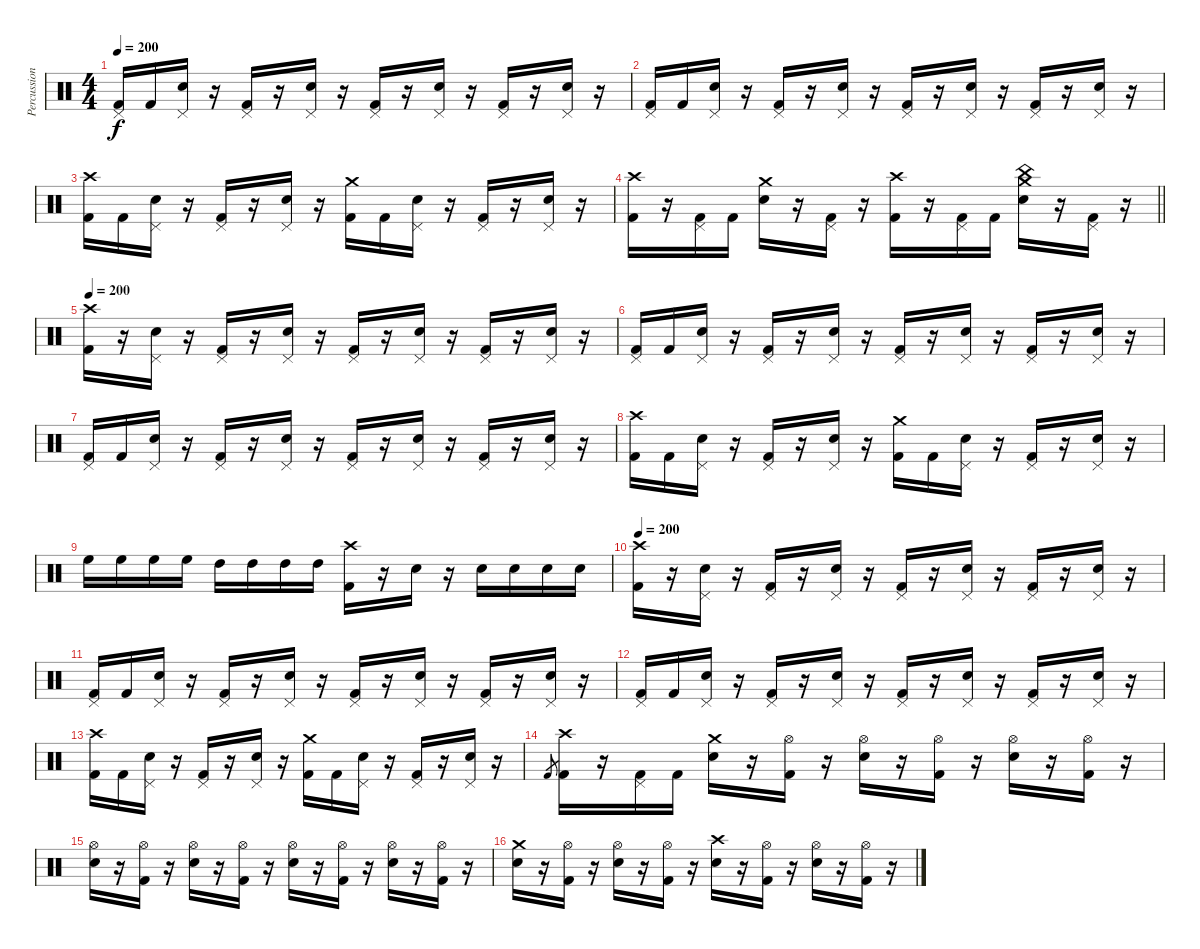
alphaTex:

\track ("Percussion" "Percussion") {instrument percussion}
\staff {score}
\articulation defaults
\ts (4 4)
\tempo 200
\clef neutral
\ks c
("Pedal Hi-Hat (hit)" "Kick (hit) 2").16{dy f} "Kick (hit) 2".16 ("Pedal Hi-Hat (hit)" "Snare (hit) 2").16 r.16 ("Pedal Hi-Hat (hit)" "Kick (hit) 2").16 r.16 ("Pedal Hi-Hat (hit)" "Snare (hit) 2").16 r.16 ("Pedal Hi-Hat (hit)" "Kick (hit) 2").16 r.16 ("Pedal Hi-Hat (hit)" "Snare (hit) 2").16 r.16 ("Pedal Hi-Hat (hit)" "Kick (hit) 2").16 r.16 ("Pedal Hi-Hat (hit)" "Snare (hit) 2").16 r.16 |
("Pedal Hi-Hat (hit)" "Kick (hit) 2").16 "Kick (hit) 2".16 ("Pedal Hi-Hat (hit)" "Snare (hit) 2").16 r.16 ("Pedal Hi-Hat (hit)" "Kick (hit) 2").16 r.16 ("Pedal Hi-Hat (hit)" "Snare (hit) 2").16 r.16 ("Pedal Hi-Hat (hit)" "Kick (hit) 2").16 r.16 ("Pedal Hi-Hat (hit)" "Snare (hit) 2").16 r.16 ("Pedal Hi-Hat (hit)" "Kick (hit) 2").16 r.16 ("Pedal Hi-Hat (hit)" "Snare (hit) 2").16 r.16 |
("Crash high (hit)" "Kick (hit) 2").16 "Kick (hit) 2".16 ("Pedal Hi-Hat (hit)" "Snare (hit) 2").16 r.16 ("Pedal Hi-Hat (hit)" "Kick (hit) 2").16 r.16 ("Pedal Hi-Hat (hit)" "Snare (hit) 2").16 r.16 ("Crash medium (hit)" "Kick (hit) 2").16 "Kick (hit) 2".16 ("Pedal Hi-Hat (hit)" "Snare (hit) 2").16 r.16 ("Pedal Hi-Hat (hit)" "Kick (hit) 2").16 r.16 ("Pedal Hi-Hat (hit)" "Snare (hit) 2").16 r.16 |
\barLineRight lightlight
("Crash high (hit)" "Kick (hit) 2").16 r.16 ("Pedal Hi-Hat (hit)" "Kick (hit) 2").16 "Kick (hit) 2".16 ("Crash medium (hit)" "Snare (hit) 2").16 r.16 ("Pedal Hi-Hat (hit)" "Kick (hit) 2").16 r.16 ("Crash high (hit)" "Kick (hit) 2").16 r.16 ("Pedal Hi-Hat (hit)" "Kick (hit) 2").16 "Kick (hit) 2".16 ("Crash medium (hit)" "China (hit)" "Snare (hit) 2").16 r.16 ("Pedal Hi-Hat (hit)" "Kick (hit) 2").16 r.16 |
\section ("" "")
\tempo 200
("Crash high (hit)" "Kick (hit) 2").16 r.16 ("Pedal Hi-Hat (hit)" "Snare (hit) 2").16 r.16 ("Pedal Hi-Hat (hit)" "Kick (hit) 2").16 r.16 ("Pedal Hi-Hat (hit)" "Snare (hit) 2").16 r.16 ("Pedal Hi-Hat (hit)" "Kick (hit) 2").16 r.16 ("Pedal Hi-Hat (hit)" "Snare (hit) 2").16 r.16 ("Pedal Hi-Hat (hit)" "Kick (hit) 2").16 r.16 ("Pedal Hi-Hat (hit)" "Snare (hit) 2").16 r.16 |
("Pedal Hi-Hat (hit)" "Kick (hit) 2").16 "Kick (hit) 2".16 ("Pedal Hi-Hat (hit)" "Snare (hit) 2").16 r.16 ("Pedal Hi-Hat (hit)" "Kick (hit) 2").16 r.16 ("Pedal Hi-Hat (hit)" "Snare (hit) 2").16 r.16 ("Pedal Hi-Hat (hit)" "Kick (hit) 2").16 r.16 ("Pedal Hi-Hat (hit)" "Snare (hit) 2").16 r.16 ("Pedal Hi-Hat (hit)" "Kick (hit) 2").16 r.16 ("Pedal Hi-Hat (hit)" "Snare (hit) 2").16 r.16 |
("Pedal Hi-Hat (hit)" "Kick (hit) 2").16 "Kick (hit) 2".16 ("Pedal Hi-Hat (hit)" "Snare (hit) 2").16 r.16 ("Pedal Hi-Hat (hit)" "Kick (hit) 2").16 r.16 ("Pedal Hi-Hat (hit)" "Snare (hit) 2").16 r.16 ("Pedal Hi-Hat (hit)" "Kick (hit) 2").16 r.16 ("Pedal Hi-Hat (hit)" "Snare (hit) 2").16 r.16 ("Pedal Hi-Hat (hit)" "Kick (hit) 2").16 r.16 ("Pedal Hi-Hat (hit)" "Snare (hit) 2").16 r.16 |
("Crash high (hit)" "Kick (hit) 2").16 "Kick (hit) 2".16 ("Pedal Hi-Hat (hit)" "Snare (hit) 2").16 r.16 ("Pedal Hi-Hat (hit)" "Kick (hit) 2").16 r.16 ("Pedal Hi-Hat (hit)" "Snare (hit) 2").16 r.16 ("Crash medium (hit)" "Kick (hit) 2").16 "Kick (hit) 2".16 ("Pedal Hi-Hat (hit)" "Snare (hit) 2").16 r.16 ("Pedal Hi-Hat (hit)" "Kick (hit) 2").16 r.16 ("Pedal Hi-Hat (hit)" "Snare (hit) 2").16 r.16 |
"High Floor Tom (hit)".16 "High Floor Tom (hit)".16 "High Floor Tom (hit)".16 "High Floor Tom (hit)".16 "High Tom (hit)".16 "High Tom (hit)".16 "High Tom (hit)".16 "High Tom (hit)".16 ("Crash high (hit)" "Kick (hit) 2").16 r.16 "Snare (hit) 2".16 r.16 "Snare (hit) 2".16 "Snare (hit) 2".16 "Snare (hit) 2".16 "Snare (hit) 2".16 |
\tempo 200
("Crash high (hit)" "Kick (hit) 2").16 r.16 ("Pedal Hi-Hat (hit)" "Snare (hit) 2").16 r.16 ("Pedal Hi-Hat (hit)" "Kick (hit) 2").16 r.16 ("Pedal Hi-Hat (hit)" "Snare (hit) 2").16 r.16 ("Pedal Hi-Hat (hit)" "Kick (hit) 2").16 r.16 ("Pedal Hi-Hat (hit)" "Snare (hit) 2").16 r.16 ("Pedal Hi-Hat (hit)" "Kick (hit) 2").16 r.16 ("Pedal Hi-Hat (hit)" "Snare (hit) 2").16 r.16 |
("Pedal Hi-Hat (hit)" "Kick (hit) 2").16 "Kick (hit) 2".16 ("Pedal Hi-Hat (hit)" "Snare (hit) 2").16 r.16 ("Pedal Hi-Hat (hit)" "Kick (hit) 2").16 r.16 ("Pedal Hi-Hat (hit)" "Snare (hit) 2").16 r.16 ("Pedal Hi-Hat (hit)" "Kick (hit) 2").16 r.16 ("Pedal Hi-Hat (hit)" "Snare (hit) 2").16 r.16 ("Pedal Hi-Hat (hit)" "Kick (hit) 2").16 r.16 ("Pedal Hi-Hat (hit)" "Snare (hit) 2").16 r.16 |
("Pedal Hi-Hat (hit)" "Kick (hit) 2").16 "Kick (hit) 2".16 ("Pedal Hi-Hat (hit)" "Snare (hit) 2").16 r.16 ("Pedal Hi-Hat (hit)" "Kick (hit) 2").16 r.16 ("Pedal Hi-Hat (hit)" "Snare (hit) 2").16 r.16 ("Pedal Hi-Hat (hit)" "Kick (hit) 2").16 r.16 ("Pedal Hi-Hat (hit)" "Snare (hit) 2").16 r.16 ("Pedal Hi-Hat (hit)" "Kick (hit) 2").16 r.16 ("Pedal Hi-Hat (hit)" "Snare (hit) 2").16 r.16 |
("Crash high (hit)" "Kick (hit) 2").16 "Kick (hit) 2".16 ("Pedal Hi-Hat (hit)" "Snare (hit) 2").16 r.16 ("Pedal Hi-Hat (hit)" "Kick (hit) 2").16 r.16 ("Pedal Hi-Hat (hit)" "Snare (hit) 2").16 r.16 ("Crash medium (hit)" "Kick (hit) 2").16 "Kick (hit) 2".16 ("Pedal Hi-Hat (hit)" "Snare (hit) 2").16 r.16 ("Pedal Hi-Hat (hit)" "Kick (hit) 2").16 r.16 ("Pedal Hi-Hat (hit)" "Snare (hit) 2").16 r.16 |
"Kick (hit) 2".8{gr} ("Crash high (hit)" "Kick (hit) 2").16 r.16 ("Pedal Hi-Hat (hit)" "Kick (hit) 2").16 "Kick (hit) 2".16 ("Crash medium (hit)" "Snare (hit) 2").16 r.16 ("Hi-Hat (open)" "Kick (hit) 2").16 r.16 ("Hi-Hat (open)" "Snare (hit) 2").16 r.16 ("Hi-Hat (open)" "Kick (hit) 2").16 r.16 ("Hi-Hat (open)" "Snare (hit) 2").16 r.16 ("Hi-Hat (open)" "Kick (hit) 2").16 r.16 |
("Hi-Hat (open)" "Snare (hit) 2").16 r.16 ("Hi-Hat (open)" "Kick (hit) 2").16 r.16 ("Hi-Hat (open)" "Snare (hit) 2").16 r.16 ("Hi-Hat (open)" "Kick (hit) 2").16 r.16 ("Hi-Hat (open)" "Snare (hit) 2").16 r.16 ("Hi-Hat (open)" "Kick (hit) 2").16 r.16 ("Hi-Hat (open)" "Snare (hit) 2").16 r.16 ("Hi-Hat (open)" "Kick (hit) 2").16 r.16 |
("Crash medium (hit)" "Snare (hit) 2").16 r.16 ("Hi-Hat (open)" "Kick (hit) 2").16 r.16 ("Hi-Hat (open)" "Snare (hit) 2").16 r.16 ("Hi-Hat (open)" "Kick (hit) 2").16 r.16 ("Crash high (hit)" "Snare (hit) 2").16 r.16 ("Hi-Hat (open)" "Kick (hit) 2").16 r.16 ("Hi-Hat (open)" "Snare (hit) 2").16 r.16 ("Hi-Hat (open)" "Kick (hit) 2").16 r.16
